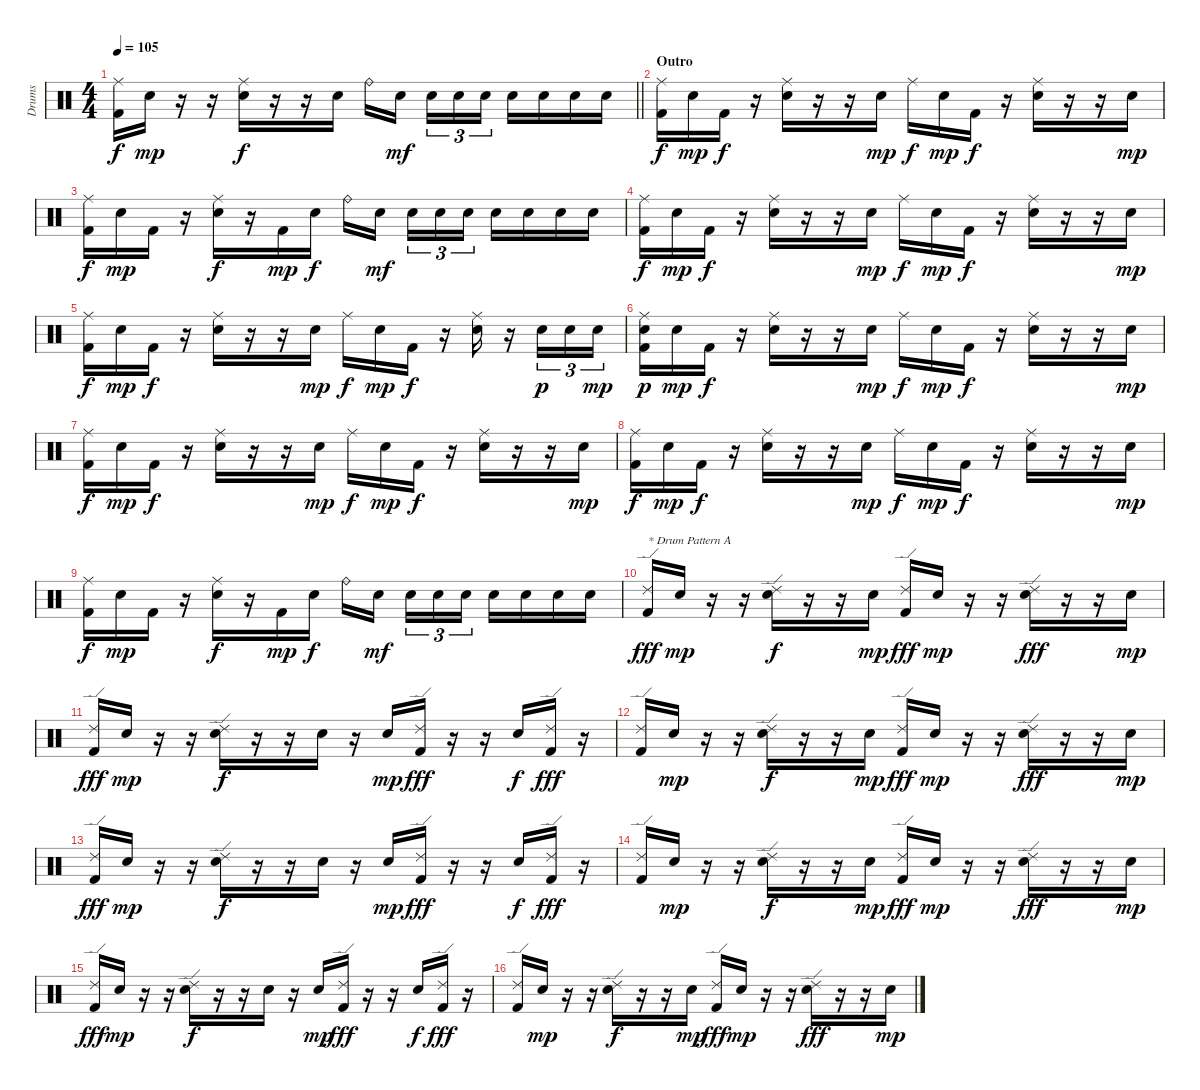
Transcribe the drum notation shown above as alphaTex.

\track ("Drums" "Drums") {instrument percussion}
\staff {score}
\articulation defaults
\ts (4 4)
\tempo 105
\clef neutral
\barLineRight lightlight
\ks c
("Ride (middle)" "Kick (hit) 2").16{dy f} "Electric Snare (hit)".16{dy mp} r.16 r.16 ("Ride (middle)" "Electric Snare (hit)").16{dy f} r.16 r.16 "Electric Snare (hit)".16 "Ride (bell)".16 "Electric Snare (hit)".16{dy mf beam splitsecondary} "Electric Snare (hit)".16{tu (3 2)} "Electric Snare (hit)".16{tu (3 2)} "Electric Snare (hit)".16{tu (3 2)} "Electric Snare (hit)".16 "Electric Snare (hit)".16 "Electric Snare (hit)".16 "Electric Snare (hit)".16 |
\section ("" "Outro")
("Ride (middle)" "Kick (hit) 2").16{dy f} "Electric Snare (hit)".16{dy mp} "Kick (hit) 2".16{dy f} r.16 ("Ride (middle)" "Electric Snare (hit)").16 r.16 r.16 "Electric Snare (hit)".16{dy mp} "Ride (middle)".16{dy f} "Electric Snare (hit)".16{dy mp} "Kick (hit) 2".16{dy f} r.16 ("Ride (middle)" "Electric Snare (hit)").16 r.16 r.16 "Electric Snare (hit)".16{dy mp} |
("Ride (middle)" "Kick (hit) 2").16{dy f} "Electric Snare (hit)".16{dy mp} "Kick (hit) 2".16 r.16 ("Ride (middle)" "Electric Snare (hit)").16{dy f} r.16 "Kick (hit) 2".16{dy mp} "Electric Snare (hit)".16{dy f} "Ride (bell)".16 "Electric Snare (hit)".16{dy mf beam splitsecondary} "Electric Snare (hit)".16{tu (3 2)} "Electric Snare (hit)".16{tu (3 2)} "Electric Snare (hit)".16{tu (3 2)} "Electric Snare (hit)".16 "Electric Snare (hit)".16 "Electric Snare (hit)".16 "Electric Snare (hit)".16 |
("Ride (middle)" "Kick (hit) 2").16{dy f} "Electric Snare (hit)".16{dy mp} "Kick (hit) 2".16{dy f} r.16 ("Ride (middle)" "Electric Snare (hit)").16 r.16 r.16 "Electric Snare (hit)".16{dy mp} "Ride (middle)".16{dy f} "Electric Snare (hit)".16{dy mp} "Kick (hit) 2".16{dy f} r.16 ("Ride (middle)" "Electric Snare (hit)").16 r.16 r.16 "Electric Snare (hit)".16{dy mp} |
("Ride (middle)" "Kick (hit) 2").16{dy f} "Electric Snare (hit)".16{dy mp} "Kick (hit) 2".16{dy f} r.16 ("Ride (middle)" "Electric Snare (hit)").16 r.16 r.16 "Electric Snare (hit)".16{dy mp} "Ride (middle)".16{dy f} "Electric Snare (hit)".16{dy mp} "Kick (hit) 2".16{dy f} r.16 ("Ride (middle)" "Electric Snare (hit)").16 r.16 "Electric Snare (hit)".16{tu (3 2) dy p} "Electric Snare (hit)".16{tu (3 2)} "Electric Snare (hit)".16{tu (3 2) dy mp} |
("Ride (middle)" "Electric Snare (hit)" "Kick (hit) 2").16{dy p} "Electric Snare (hit)".16{dy mp} "Kick (hit) 2".16{dy f} r.16 ("Ride (middle)" "Electric Snare (hit)").16 r.16 r.16 "Electric Snare (hit)".16{dy mp} "Ride (middle)".16{dy f} "Electric Snare (hit)".16{dy mp} "Kick (hit) 2".16{dy f} r.16 ("Ride (middle)" "Electric Snare (hit)").16 r.16 r.16 "Electric Snare (hit)".16{dy mp} |
("Ride (middle)" "Kick (hit) 2").16{dy f} "Electric Snare (hit)".16{dy mp} "Kick (hit) 2".16{dy f} r.16 ("Ride (middle)" "Electric Snare (hit)").16 r.16 r.16 "Electric Snare (hit)".16{dy mp} "Ride (middle)".16{dy f} "Electric Snare (hit)".16{dy mp} "Kick (hit) 2".16{dy f} r.16 ("Ride (middle)" "Electric Snare (hit)").16 r.16 r.16 "Electric Snare (hit)".16{dy mp} |
("Ride (middle)" "Kick (hit) 2").16{dy f} "Electric Snare (hit)".16{dy mp} "Kick (hit) 2".16{dy f} r.16 ("Ride (middle)" "Electric Snare (hit)").16 r.16 r.16 "Electric Snare (hit)".16{dy mp} "Ride (middle)".16{dy f} "Electric Snare (hit)".16{dy mp} "Kick (hit) 2".16{dy f} r.16 ("Ride (middle)" "Electric Snare (hit)").16 r.16 r.16 "Electric Snare (hit)".16{dy mp} |
("Ride (middle)" "Kick (hit) 2").16{dy f} "Electric Snare (hit)".16{dy mp} "Kick (hit) 2".16 r.16 ("Ride (middle)" "Electric Snare (hit)").16{dy f} r.16 "Kick (hit) 2".16{dy mp} "Electric Snare (hit)".16{dy f} "Ride (bell)".16 "Electric Snare (hit)".16{dy mf beam splitsecondary} "Electric Snare (hit)".16{tu (3 2)} "Electric Snare (hit)".16{tu (3 2)} "Electric Snare (hit)".16{tu (3 2)} "Electric Snare (hit)".16 "Electric Snare (hit)".16 "Electric Snare (hit)".16 "Electric Snare (hit)".16 |
("Ride (edge) 2" "Kick (hit) 2").16{txt "* Drum Pattern A" dy fff} "Electric Snare (hit)".16{dy mp} r.16 r.16 ("Ride (edge) 2" "Electric Snare (hit)").16{dy f} r.16 r.16 "Electric Snare (hit)".16{dy mp} ("Ride (edge) 2" "Kick (hit) 2").16{dy fff} "Electric Snare (hit)".16{dy mp} r.16 r.16 ("Ride (edge) 2" "Electric Snare (hit)").16{dy fff} r.16 r.16 "Electric Snare (hit)".16{dy mp} |
("Ride (edge) 2" "Kick (hit) 2").16{dy fff} "Electric Snare (hit)".16{dy mp} r.16 r.16 ("Ride (edge) 2" "Electric Snare (hit)").16{dy f} r.16 r.16 "Electric Snare (hit)".16 r.16 "Electric Snare (hit)".16{dy mp} ("Ride (edge) 2" "Kick (hit) 2").16{dy fff} r.16 r.16 "Electric Snare (hit)".16{dy f} ("Ride (edge) 2" "Kick (hit) 2").16{dy fff} r.16 |
("Ride (edge) 2" "Kick (hit) 2").16 "Electric Snare (hit)".16{dy mp} r.16 r.16 ("Ride (edge) 2" "Electric Snare (hit)").16{dy f} r.16 r.16 "Electric Snare (hit)".16{dy mp} ("Ride (edge) 2" "Kick (hit) 2").16{dy fff} "Electric Snare (hit)".16{dy mp} r.16 r.16 ("Ride (edge) 2" "Electric Snare (hit)").16{dy fff} r.16 r.16 "Electric Snare (hit)".16{dy mp} |
("Ride (edge) 2" "Kick (hit) 2").16{dy fff} "Electric Snare (hit)".16{dy mp} r.16 r.16 ("Ride (edge) 2" "Electric Snare (hit)").16{dy f} r.16 r.16 "Electric Snare (hit)".16 r.16 "Electric Snare (hit)".16{dy mp} ("Ride (edge) 2" "Kick (hit) 2").16{dy fff} r.16 r.16 "Electric Snare (hit)".16{dy f} ("Ride (edge) 2" "Kick (hit) 2").16{dy fff} r.16 |
("Ride (edge) 2" "Kick (hit) 2").16 "Electric Snare (hit)".16{dy mp} r.16 r.16 ("Ride (edge) 2" "Electric Snare (hit)").16{dy f} r.16 r.16 "Electric Snare (hit)".16{dy mp} ("Ride (edge) 2" "Kick (hit) 2").16{dy fff} "Electric Snare (hit)".16{dy mp} r.16 r.16 ("Ride (edge) 2" "Electric Snare (hit)").16{dy fff} r.16 r.16 "Electric Snare (hit)".16{dy mp} |
("Ride (edge) 2" "Kick (hit) 2").16{dy fff} "Electric Snare (hit)".16{dy mp} r.16 r.16 ("Ride (edge) 2" "Electric Snare (hit)").16{dy f} r.16 r.16 "Electric Snare (hit)".16 r.16 "Electric Snare (hit)".16{dy mp} ("Ride (edge) 2" "Kick (hit) 2").16{dy fff} r.16 r.16 "Electric Snare (hit)".16{dy f} ("Ride (edge) 2" "Kick (hit) 2").16{dy fff} r.16 |
("Ride (edge) 2" "Kick (hit) 2").16 "Electric Snare (hit)".16{dy mp} r.16 r.16 ("Ride (edge) 2" "Electric Snare (hit)").16{dy f} r.16 r.16 "Electric Snare (hit)".16{dy mp} ("Ride (edge) 2" "Kick (hit) 2").16{dy fff} "Electric Snare (hit)".16{dy mp} r.16 r.16 ("Ride (edge) 2" "Electric Snare (hit)").16{dy fff} r.16 r.16 "Electric Snare (hit)".16{dy mp}
